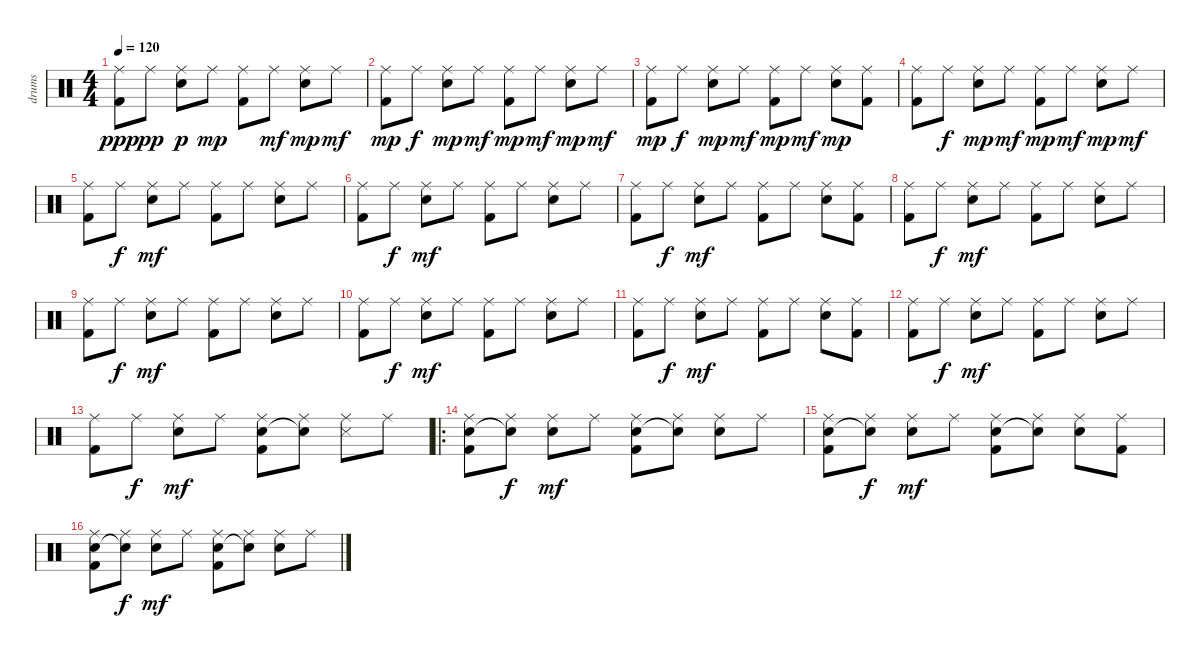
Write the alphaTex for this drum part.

\track ("drums" "drums") {instrument percussion}
\staff {score}
\articulation defaults
\ts (4 4)
\tempo 120
\clef neutral
\ks c
("Ride (middle)" "Kick (hit) 2").8{dy ppp} "Ride (middle)".8{dy pp} ("Ride (middle)" "Snare (hit) 2").8{dy p} "Ride (middle)".8{dy mp} ("Ride (middle)" "Kick (hit) 2").8 "Ride (middle)".8{dy mf} ("Ride (middle)" "Snare (hit) 2").8{dy mp} "Ride (middle)".8{dy mf} |
("Ride (middle)" "Kick (hit) 2").8{dy mp} "Ride (middle)".8{dy f} ("Ride (middle)" "Snare (hit) 2").8{dy mp} "Ride (middle)".8{dy mf} ("Ride (middle)" "Kick (hit) 2").8{dy mp} "Ride (middle)".8{dy mf} ("Ride (middle)" "Snare (hit) 2").8{dy mp} "Ride (middle)".8{dy mf} |
("Ride (middle)" "Kick (hit) 2").8{dy mp} "Ride (middle)".8{dy f} ("Ride (middle)" "Snare (hit) 2").8{dy mp} "Ride (middle)".8{dy mf} ("Ride (middle)" "Kick (hit) 2").8{dy mp} "Ride (middle)".8{dy mf} ("Ride (middle)" "Snare (hit) 2").8{dy mp} ("Ride (middle)" "Kick (hit) 2").8 |
("Ride (middle)" "Kick (hit) 2").8 "Ride (middle)".8{dy f} ("Ride (middle)" "Snare (hit) 2").8{dy mp} "Ride (middle)".8{dy mf} ("Ride (middle)" "Kick (hit) 2").8{dy mp} "Ride (middle)".8{dy mf} ("Ride (middle)" "Snare (hit) 2").8{dy mp} "Ride (middle)".8{dy mf} |
("Ride (middle)" "Kick (hit) 2").8 "Ride (middle)".8{dy f} ("Ride (middle)" "Snare (hit) 2").8{dy mf} "Ride (middle)".8 ("Ride (middle)" "Kick (hit) 2").8 "Ride (middle)".8 ("Ride (middle)" "Snare (hit) 2").8 "Ride (middle)".8 |
("Ride (middle)" "Kick (hit) 2").8 "Ride (middle)".8{dy f} ("Ride (middle)" "Snare (hit) 2").8{dy mf} "Ride (middle)".8 ("Ride (middle)" "Kick (hit) 2").8 "Ride (middle)".8 ("Ride (middle)" "Snare (hit) 2").8 "Ride (middle)".8 |
("Ride (middle)" "Kick (hit) 2").8 "Ride (middle)".8{dy f} ("Ride (middle)" "Snare (hit) 2").8{dy mf} "Ride (middle)".8 ("Ride (middle)" "Kick (hit) 2").8 "Ride (middle)".8 ("Ride (middle)" "Snare (hit) 2").8 ("Ride (middle)" "Kick (hit) 2").8 |
("Ride (middle)" "Kick (hit) 2").8 "Ride (middle)".8{dy f} ("Ride (middle)" "Snare (hit) 2").8{dy mf} "Ride (middle)".8 ("Ride (middle)" "Kick (hit) 2").8 "Ride (middle)".8 ("Ride (middle)" "Snare (hit) 2").8 "Ride (middle)".8 |
("Ride (middle)" "Kick (hit) 2").8 "Ride (middle)".8{dy f} ("Ride (middle)" "Snare (hit) 2").8{dy mf} "Ride (middle)".8 ("Ride (middle)" "Kick (hit) 2").8 "Ride (middle)".8 ("Ride (middle)" "Snare (hit) 2").8 "Ride (middle)".8 |
("Ride (middle)" "Kick (hit) 2").8 "Ride (middle)".8{dy f} ("Ride (middle)" "Snare (hit) 2").8{dy mf} "Ride (middle)".8 ("Ride (middle)" "Kick (hit) 2").8 "Ride (middle)".8 ("Ride (middle)" "Snare (hit) 2").8 "Ride (middle)".8 |
("Ride (middle)" "Kick (hit) 2").8 "Ride (middle)".8{dy f} ("Ride (middle)" "Snare (hit) 2").8{dy mf} "Ride (middle)".8 ("Ride (middle)" "Kick (hit) 2").8 "Ride (middle)".8 ("Ride (middle)" "Snare (hit) 2").8 ("Ride (middle)" "Kick (hit) 2").8 |
("Ride (middle)" "Kick (hit) 2").8 "Ride (middle)".8{dy f} ("Ride (middle)" "Snare (hit) 2").8{dy mf} "Ride (middle)".8 ("Ride (middle)" "Kick (hit) 2").8 "Ride (middle)".8 ("Ride (middle)" "Snare (hit) 2").8 "Ride (middle)".8 |
("Ride (middle)" "Kick (hit) 2").8 "Ride (middle)".8{dy f} ("Ride (middle)" "Snare (hit) 2").8{dy mf} "Ride (middle)".8 ("Ride (middle)" "Hand Clap (hit)" "Kick (hit) 2").8 ("Ride (middle)" "Snare (hit)"{t}).8 ("Ride (middle)" "Snare (side stick) 3").8 "Ride (middle)".8 |
\ro
("Ride (middle)" "Hand Clap (hit)" "Kick (hit) 2").8 ("Ride (middle)" "Snare (hit)"{t}).8{dy f} ("Ride (middle)" "Snare (hit) 2").8{dy mf} "Ride (middle)".8 ("Ride (middle)" "Hand Clap (hit)" "Kick (hit) 2").8 ("Ride (middle)" "Snare (hit)"{t}).8 ("Ride (middle)" "Snare (hit) 2").8 "Ride (middle)".8 |
("Ride (middle)" "Hand Clap (hit)" "Kick (hit) 2").8 ("Ride (middle)" "Snare (hit)"{t}).8{dy f} ("Ride (middle)" "Snare (hit) 2").8{dy mf} "Ride (middle)".8 ("Ride (middle)" "Hand Clap (hit)" "Kick (hit) 2").8 ("Ride (middle)" "Snare (hit)"{t}).8 ("Ride (middle)" "Snare (hit) 2").8 ("Ride (middle)" "Kick (hit) 2").8 |
("Ride (middle)" "Hand Clap (hit)" "Kick (hit) 2").8 ("Ride (middle)" "Snare (hit)"{t}).8{dy f} ("Ride (middle)" "Snare (hit) 2").8{dy mf} "Ride (middle)".8 ("Ride (middle)" "Hand Clap (hit)" "Kick (hit) 2").8 ("Ride (middle)" "Snare (hit)"{t}).8 ("Ride (middle)" "Snare (hit) 2").8 "Ride (middle)".8
